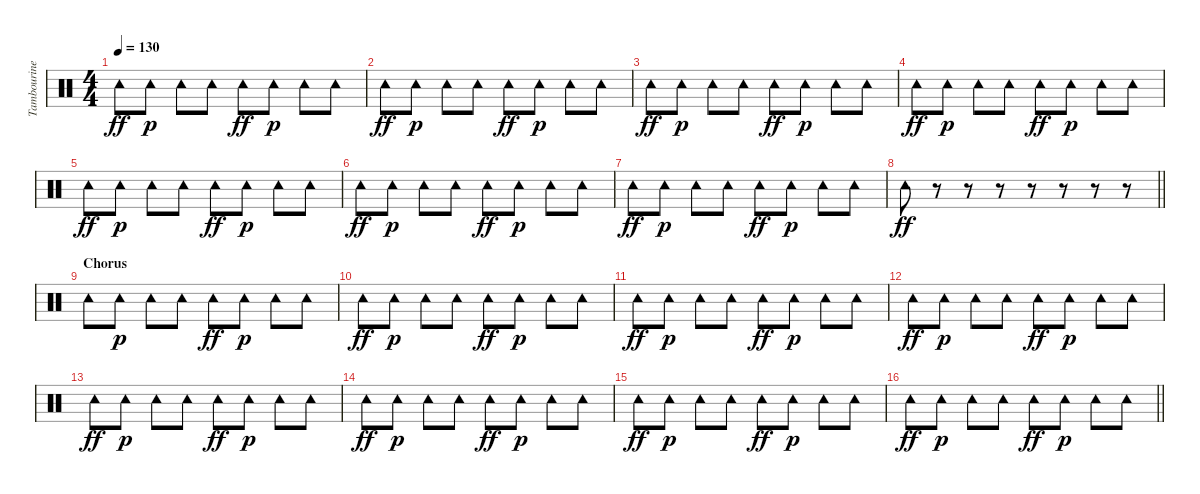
\track ("Tambourine" "Tambourine") {instrument percussion}
\staff {score}
\articulation defaults
\ts (4 4)
\tempo 130
\clef neutral
\ks c "Tambourine (hit)".8{dy ff} "Tambourine (hit)".8{dy p} "Tambourine (hit)".8 "Tambourine (hit)".8 "Tambourine (hit)".8{dy ff} "Tambourine (hit)".8{dy p} "Tambourine (hit)".8 "Tambourine (hit)".8
|
"Tambourine (hit)".8{dy ff} "Tambourine (hit)".8{dy p} "Tambourine (hit)".8 "Tambourine (hit)".8 "Tambourine (hit)".8{dy ff} "Tambourine (hit)".8{dy p} "Tambourine (hit)".8 "Tambourine (hit)".8 |
"Tambourine (hit)".8{dy ff} "Tambourine (hit)".8{dy p} "Tambourine (hit)".8 "Tambourine (hit)".8 "Tambourine (hit)".8{dy ff} "Tambourine (hit)".8{dy p} "Tambourine (hit)".8 "Tambourine (hit)".8 |
"Tambourine (hit)".8{dy ff} "Tambourine (hit)".8{dy p} "Tambourine (hit)".8 "Tambourine (hit)".8 "Tambourine (hit)".8{dy ff} "Tambourine (hit)".8{dy p} "Tambourine (hit)".8 "Tambourine (hit)".8 |
"Tambourine (hit)".8{dy ff} "Tambourine (hit)".8{dy p} "Tambourine (hit)".8 "Tambourine (hit)".8 "Tambourine (hit)".8{dy ff} "Tambourine (hit)".8{dy p} "Tambourine (hit)".8 "Tambourine (hit)".8 |
"Tambourine (hit)".8{dy ff} "Tambourine (hit)".8{dy p} "Tambourine (hit)".8 "Tambourine (hit)".8 "Tambourine (hit)".8{dy ff} "Tambourine (hit)".8{dy p} "Tambourine (hit)".8 "Tambourine (hit)".8 |
"Tambourine (hit)".8{dy ff} "Tambourine (hit)".8{dy p} "Tambourine (hit)".8 "Tambourine (hit)".8 "Tambourine (hit)".8{dy ff} "Tambourine (hit)".8{dy p} "Tambourine (hit)".8 "Tambourine (hit)".8 |
\barLineRight lightlight "Tambourine (hit)".8{dy ff}
r.8 r.8 r.8 r.8 r.8 r.8 r.8 |
\section ("" "Chorus")
"Tambourine (hit)".8 "Tambourine (hit)".8{dy p} "Tambourine (hit)".8 "Tambourine (hit)".8 "Tambourine (hit)".8{dy ff} "Tambourine (hit)".8{dy p} "Tambourine (hit)".8 "Tambourine (hit)".8 |
"Tambourine (hit)".8{dy ff} "Tambourine (hit)".8{dy p} "Tambourine (hit)".8 "Tambourine (hit)".8 "Tambourine (hit)".8{dy ff} "Tambourine (hit)".8{dy p} "Tambourine (hit)".8 "Tambourine (hit)".8 |
"Tambourine (hit)".8{dy ff} "Tambourine (hit)".8{dy p} "Tambourine (hit)".8 "Tambourine (hit)".8 "Tambourine (hit)".8{dy ff} "Tambourine (hit)".8{dy p} "Tambourine (hit)".8 "Tambourine (hit)".8 |
"Tambourine (hit)".8{dy ff} "Tambourine (hit)".8{dy p} "Tambourine (hit)".8 "Tambourine (hit)".8 "Tambourine (hit)".8{dy ff} "Tambourine (hit)".8{dy p} "Tambourine (hit)".8 "Tambourine (hit)".8 |
"Tambourine (hit)".8{dy ff} "Tambourine (hit)".8{dy p} "Tambourine (hit)".8 "Tambourine (hit)".8 "Tambourine (hit)".8{dy ff} "Tambourine (hit)".8{dy p} "Tambourine (hit)".8 "Tambourine (hit)".8 |
"Tambourine (hit)".8{dy ff} "Tambourine (hit)".8{dy p} "Tambourine (hit)".8 "Tambourine (hit)".8 "Tambourine (hit)".8{dy ff} "Tambourine (hit)".8{dy p} "Tambourine (hit)".8 "Tambourine (hit)".8 |
"Tambourine (hit)".8{dy ff} "Tambourine (hit)".8{dy p} "Tambourine (hit)".8 "Tambourine (hit)".8 "Tambourine (hit)".8{dy ff} "Tambourine (hit)".8{dy p} "Tambourine (hit)".8 "Tambourine (hit)".8 |
\barLineRight lightlight "Tambourine (hit)".8{dy ff} "Tambourine (hit)".8{dy p} "Tambourine (hit)".8 "Tambourine (hit)".8 "Tambourine (hit)".8{dy ff} "Tambourine (hit)".8{dy p} "Tambourine (hit)".8 "Tambourine (hit)".8
